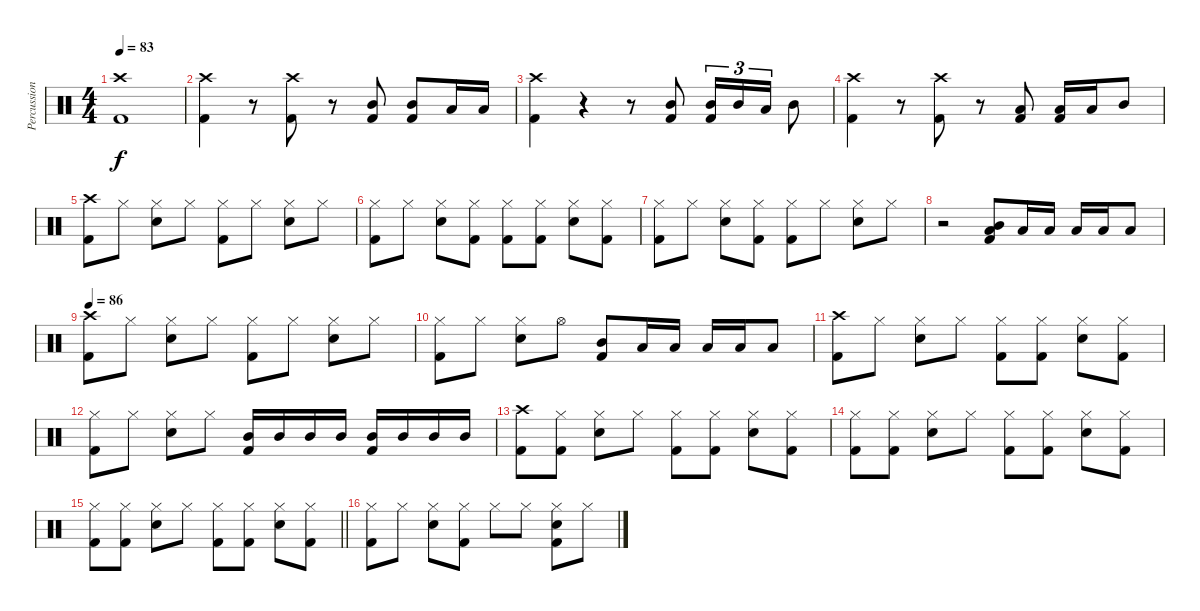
\track ("Percussion" "Percussion") {instrument percussion}
\staff {score}
\articulation defaults
\ts (4 4)
\tempo 83
\clef neutral
\ks c
("Crash high (hit)" "Kick (hit) 2").1{dy f} |
("Crash high (hit)" "Kick (hit) 2").4 r.8 ("Crash high (hit)" "Kick (hit) 2").8 r.8 ("Mid Tom (hit)" "Kick (hit) 2").8 ("Mid Tom (hit)" "Kick (hit) 2").8 "Low Floor Tom (hit)".16 "Low Floor Tom (hit)".16 |
("Crash high (hit)" "Kick (hit) 2").4 r.4 r.8 ("Mid Tom (hit)" "Kick (hit) 2").8 ("Mid Tom (hit)" "Kick (hit) 2").16{tu (3 2)} "Mid Tom (hit)".16{tu (3 2)} "Low Floor Tom (hit)".16{tu (3 2)} "Mid Tom (hit)".8 |
("Crash high (hit)" "Kick (hit) 2").4 r.8 ("Crash high (hit)" "Kick (hit) 2").8 r.8 ("Low Floor Tom (hit)" "Kick (hit) 2").8 ("Low Floor Tom (hit)" "Kick (hit) 2").16 "Low Floor Tom (hit)".16 "Mid Tom (hit)".8 |
("Crash high (hit)" "Kick (hit) 2").8 "Hi-Hat (closed)".8 ("Hi-Hat (closed)" "Snare (hit) 2").8 "Hi-Hat (closed)".8 ("Hi-Hat (closed)" "Kick (hit) 2").8 "Hi-Hat (closed)".8 ("Hi-Hat (closed)" "Snare (hit) 2").8 "Hi-Hat (closed)".8 |
("Hi-Hat (closed)" "Kick (hit) 2").8 "Hi-Hat (closed)".8 ("Hi-Hat (closed)" "Snare (hit) 2").8 ("Hi-Hat (closed)" "Kick (hit) 2").8 ("Hi-Hat (closed)" "Kick (hit) 2").8 ("Hi-Hat (closed)" "Kick (hit) 2").8 ("Hi-Hat (closed)" "Snare (hit) 2").8 ("Hi-Hat (closed)" "Kick (hit) 2").8 |
("Hi-Hat (closed)" "Kick (hit) 2").8 "Hi-Hat (closed)".8 ("Hi-Hat (closed)" "Snare (hit) 2").8 ("Hi-Hat (closed)" "Kick (hit) 2").8 ("Hi-Hat (closed)" "Kick (hit) 2").8 "Hi-Hat (closed)".8 ("Hi-Hat (closed)" "Snare (hit) 2").8 "Hi-Hat (closed)".8 |
r.2 ("Mid Tom (hit)" "Low Floor Tom (hit)" "Kick (hit) 2").8 "Low Floor Tom (hit)".16 "Low Floor Tom (hit)".16 "Low Floor Tom (hit)".16 "Low Floor Tom (hit)".16 "Low Floor Tom (hit)".8 |
\tempo 86
("Crash high (hit)" "Kick (hit) 2").8 "Hi-Hat (closed)".8 ("Hi-Hat (closed)" "Snare (hit) 2").8 "Hi-Hat (closed)".8 ("Hi-Hat (closed)" "Kick (hit) 2").8 "Hi-Hat (closed)".8 ("Hi-Hat (closed)" "Snare (hit) 2").8 "Hi-Hat (closed)".8 |
("Hi-Hat (closed)" "Kick (hit) 2").8 "Hi-Hat (closed)".8 ("Hi-Hat (closed)" "Snare (hit) 2").8 "Hi-Hat (open)".8 ("Mid Tom (hit)" "Kick (hit) 2").8 "Low Floor Tom (hit)".16 "Low Floor Tom (hit)".16 "Low Floor Tom (hit)".16 "Low Floor Tom (hit)".16 "Low Floor Tom (hit)".8 |
("Crash high (hit)" "Kick (hit) 2").8 "Hi-Hat (closed)".8 ("Hi-Hat (closed)" "Snare (hit) 2").8 "Hi-Hat (closed)".8 ("Hi-Hat (closed)" "Kick (hit) 2").8 ("Hi-Hat (closed)" "Kick (hit) 2").8 ("Hi-Hat (closed)" "Snare (hit) 2").8 ("Hi-Hat (closed)" "Kick (hit) 2").8 |
("Hi-Hat (closed)" "Kick (hit) 2").8 "Hi-Hat (closed)".8 ("Hi-Hat (closed)" "Snare (hit) 2").8 "Hi-Hat (closed)".8 ("Mid Tom (hit)" "Kick (hit) 2").16 "Mid Tom (hit)".16 "Mid Tom (hit)".16 "Mid Tom (hit)".16 ("Mid Tom (hit)" "Kick (hit) 2").16 "Mid Tom (hit)".16 "Mid Tom (hit)".16 "Mid Tom (hit)".16 |
("Crash high (hit)" "Kick (hit) 2").8 ("Hi-Hat (closed)" "Kick (hit) 2").8 ("Hi-Hat (closed)" "Snare (hit) 2").8 "Hi-Hat (closed)".8 ("Hi-Hat (closed)" "Kick (hit) 2").8 ("Hi-Hat (closed)" "Kick (hit) 2").8 ("Hi-Hat (closed)" "Snare (hit) 2").8 ("Hi-Hat (closed)" "Kick (hit) 2").8 |
("Hi-Hat (closed)" "Kick (hit) 2").8 ("Hi-Hat (closed)" "Kick (hit) 2").8 ("Hi-Hat (closed)" "Snare (hit) 2").8 "Hi-Hat (closed)".8 ("Hi-Hat (closed)" "Kick (hit) 2").8 ("Hi-Hat (closed)" "Kick (hit) 2").8 ("Hi-Hat (closed)" "Snare (hit) 2").8 ("Hi-Hat (closed)" "Kick (hit) 2").8 |
\barLineRight lightlight
("Hi-Hat (closed)" "Kick (hit) 2").8 ("Hi-Hat (closed)" "Kick (hit) 2").8 ("Hi-Hat (closed)" "Snare (hit) 2").8 "Hi-Hat (closed)".8 ("Hi-Hat (closed)" "Kick (hit) 2").8 ("Hi-Hat (closed)" "Kick (hit) 2").8 ("Hi-Hat (closed)" "Snare (hit) 2").8 ("Hi-Hat (closed)" "Kick (hit) 2").8 |
("Hi-Hat (closed)" "Kick (hit) 2").8 "Hi-Hat (closed)".8 ("Hi-Hat (closed)" "Snare (hit) 2").8 ("Hi-Hat (closed)" "Kick (hit) 2").8 "Hi-Hat (closed)".8 "Hi-Hat (closed)".8 ("Hi-Hat (closed)" "Snare (hit) 2" "Kick (hit) 2").8 "Hi-Hat (closed)".8
